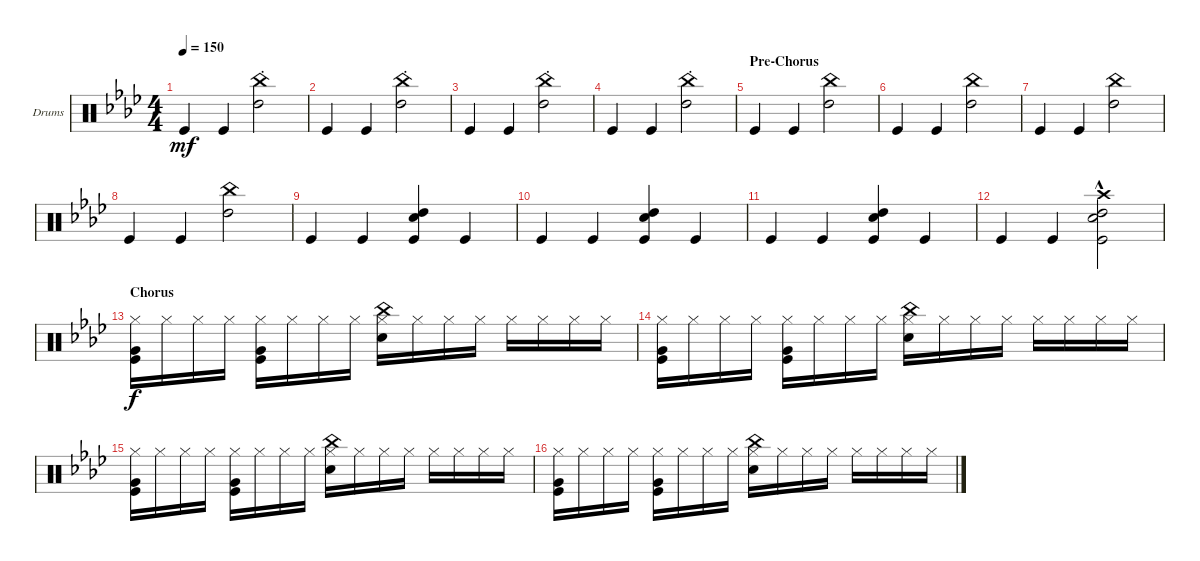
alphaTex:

\bracketExtendMode groupsimilarinstruments
\firstSystemTrackNameOrientation horizontal
\otherSystemsTrackNameOrientation horizontal
\track ("Drums" "Drums") {instrument percussion}
\staff {score}
\articulation defaults
\ts (4 4)
\tempo 150
\clef neutral
\ks ab "Kick (hit)".4{dy mf} "Kick (hit)".4
("High Tom (hit)" "China (hit)"{st}).2 |
"Kick (hit)".4 "Kick (hit)".4 ("High Tom (hit)" "China (hit)"{st}).2 |
"Kick (hit)".4 "Kick (hit)".4 ("High Tom (hit)" "China (hit)"{st}).2 |
"Kick (hit)".4 "Kick (hit)".4 ("High Tom (hit)" "China (hit)"{st}).2 |
\section ("" "Pre-Chorus")
"Kick (hit)".4 "Kick (hit)".4 ("High Tom (hit)" "China (hit)").2 |
"Kick (hit)".4 "Kick (hit)".4 ("High Tom (hit)" "China (hit)").2 |
"Kick (hit)".4 "Kick (hit)".4 ("High Tom (hit)" "China (hit)").2 |
"Kick (hit)".4 "Kick (hit)".4 ("High Tom (hit)" "China (hit)").2 |
"Kick (hit)".4 "Kick (hit)".4 ("Kick (hit)" "Snare (hit) 2" "High Tom (hit)").4 "Kick (hit)".4 |
"Kick (hit)".4 "Kick (hit)".4 ("Kick (hit)" "Snare (hit) 2" "High Tom (hit)").4 "Kick (hit)".4 |
"Kick (hit)".4 "Kick (hit)".4 ("Kick (hit)" "Snare (hit) 2" "High Tom (hit)").4 "Kick (hit)".4 |
"Kick (hit)".4 "Kick (hit)".4 ("Kick (hit)" "Snare (hit) 2" "High Tom (hit)" "Crash high (hit)"{hac}).2 |
\section ("" "Chorus")
("Kick (hit)" "Very Low Tom (hit)" "Hi-Hat (closed)").16{dy f} "Hi-Hat (closed)".16 "Hi-Hat (closed)".16 "Hi-Hat (closed)".16 ("Kick (hit)" "Very Low Tom (hit)" "Hi-Hat (closed)").16 "Hi-Hat (closed)".16 "Hi-Hat (closed)".16 "Hi-Hat (closed)".16 ("Hi-Hat (closed)" "Snare (hit) 2" "China (hit)").16 "Hi-Hat (closed)".16 "Hi-Hat (closed)".16 "Hi-Hat (closed)".16 "Hi-Hat (closed)".16 "Hi-Hat (closed)".16 "Hi-Hat (closed)".16 "Hi-Hat (closed)".16 |
("Kick (hit)" "Very Low Tom (hit)" "Hi-Hat (closed)").16 "Hi-Hat (closed)".16 "Hi-Hat (closed)".16 "Hi-Hat (closed)".16 ("Kick (hit)" "Very Low Tom (hit)" "Hi-Hat (closed)").16 "Hi-Hat (closed)".16 "Hi-Hat (closed)".16 "Hi-Hat (closed)".16 ("Hi-Hat (closed)" "Snare (hit) 2" "China (hit)").16 "Hi-Hat (closed)".16 "Hi-Hat (closed)".16 "Hi-Hat (closed)".16 "Hi-Hat (closed)".16 "Hi-Hat (closed)".16 "Hi-Hat (closed)".16 "Hi-Hat (closed)".16 |
("Kick (hit)" "Very Low Tom (hit)" "Hi-Hat (closed)").16 "Hi-Hat (closed)".16 "Hi-Hat (closed)".16 "Hi-Hat (closed)".16 ("Kick (hit)" "Very Low Tom (hit)" "Hi-Hat (closed)").16 "Hi-Hat (closed)".16 "Hi-Hat (closed)".16 "Hi-Hat (closed)".16 ("Hi-Hat (closed)" "Snare (hit) 2" "China (hit)").16 "Hi-Hat (closed)".16 "Hi-Hat (closed)".16 "Hi-Hat (closed)".16 "Hi-Hat (closed)".16 "Hi-Hat (closed)".16 "Hi-Hat (closed)".16 "Hi-Hat (closed)".16 |
("Kick (hit)" "Very Low Tom (hit)" "Hi-Hat (closed)").16 "Hi-Hat (closed)".16 "Hi-Hat (closed)".16 "Hi-Hat (closed)".16 ("Kick (hit)" "Very Low Tom (hit)" "Hi-Hat (closed)").16 "Hi-Hat (closed)".16 "Hi-Hat (closed)".16 "Hi-Hat (closed)".16 ("Hi-Hat (closed)" "Snare (hit) 2" "China (hit)").16 "Hi-Hat (closed)".16 "Hi-Hat (closed)".16 "Hi-Hat (closed)".16 "Hi-Hat (closed)".16 "Hi-Hat (closed)".16 "Hi-Hat (closed)".16 "Hi-Hat (closed)".16
